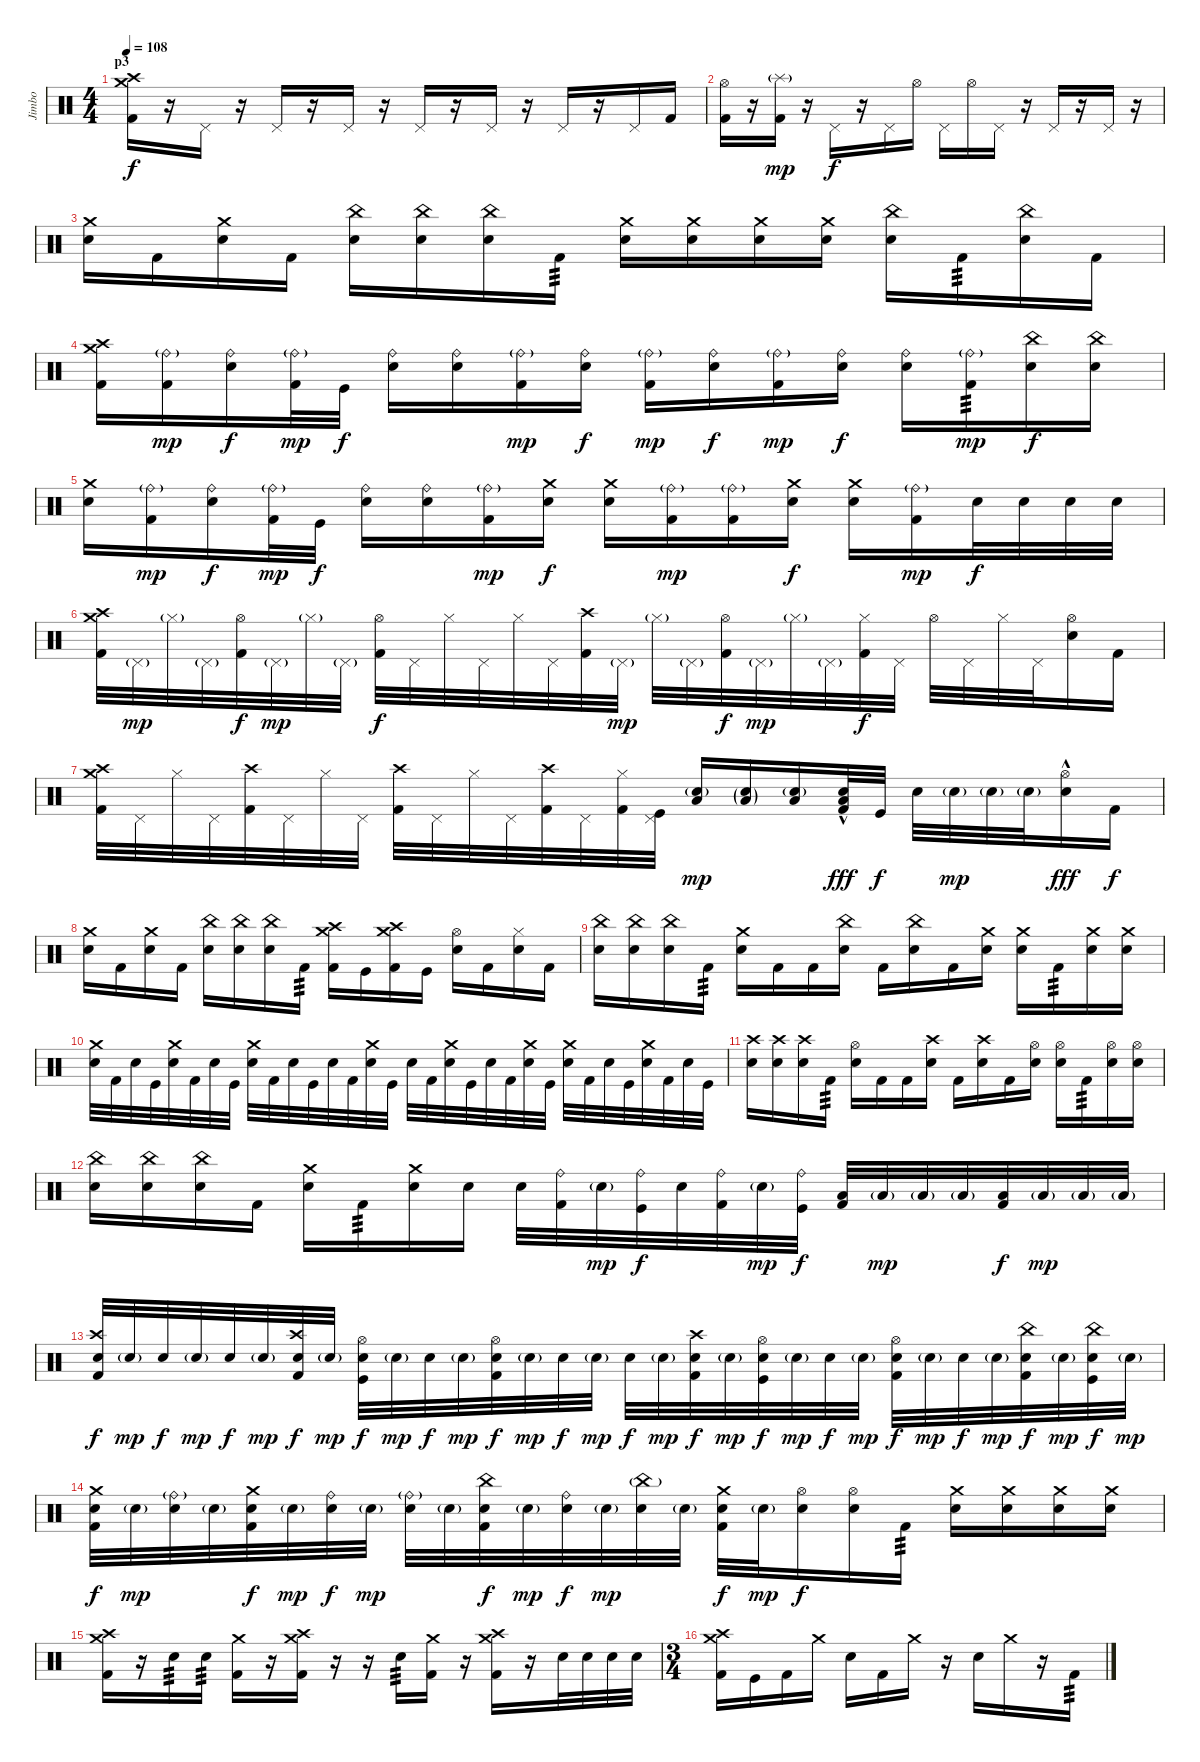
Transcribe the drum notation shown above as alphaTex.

\track ("Jimbo" "Jimbo") {instrument percussion}
\staff
\articulation defaults
\ts (4 4)
\section ("" "p3")
\tempo 108
\clef neutral
\ks c
("Kick (hit) 2" "Crash medium (hit)" "Crash high (hit)").16{dy f} r.16 "Pedal Hi-Hat (hit)".16 r.16 "Pedal Hi-Hat (hit)".16 r.16 "Pedal Hi-Hat (hit)".16 r.16 "Pedal Hi-Hat (hit)".16 r.16 "Pedal Hi-Hat (hit)".16 r.16 "Pedal Hi-Hat (hit)".16 r.16 "Pedal Hi-Hat (hit)".16 "Kick (hit) 2".16 |
("Kick (hit) 2" "Hi-Hat (open)").16 r.16 ("Kick (hit) 2" "Splash (hit)"{g}).16{dy mp} r.16 "Pedal Hi-Hat (hit)".16{dy f} r.16 "Pedal Hi-Hat (hit)".16 "Hi-Hat (open)".16 "Pedal Hi-Hat (hit)".16 "Hi-Hat (open)".16 "Pedal Hi-Hat (hit)".16 r.16 "Pedal Hi-Hat (hit)".16 r.16 "Pedal Hi-Hat (hit)".16 r.16 |
("Electric Snare (hit)" "Crash medium (hit)").16 "Kick (hit) 2".16 ("Electric Snare (hit)" "Crash medium (hit)").16 "Kick (hit) 2".16 ("Electric Snare (hit)" "China (hit)").16 ("Electric Snare (hit)" "China (hit)").16 ("Electric Snare (hit)" "China (hit)").16 "Kick (hit) 2".16{tp 3} ("Electric Snare (hit)" "Crash medium (hit)").16 ("Electric Snare (hit)" "Crash medium (hit)").16 ("Electric Snare (hit)" "Crash medium (hit)").16 ("Electric Snare (hit)" "Crash medium (hit)").16 ("Electric Snare (hit)" "China (hit)").16 "Kick (hit) 2".16{tp 3} ("Electric Snare (hit)" "China (hit)").16 "Kick (hit) 2".16 |
("Kick (hit) 2" "Crash high (hit)" "Crash medium (hit)").16 ("Kick (hit) 2" "Ride (bell)"{g}).16{dy mp} ("Electric Snare (hit)" "Ride (bell)").16{dy f} ("Kick (hit) 2" "Ride (bell)"{g}).32{dy mp} "Kick (hit)".32{dy f} ("Electric Snare (hit)" "Ride (bell)").16 ("Electric Snare (hit)" "Ride (bell)").16 ("Kick (hit) 2" "Ride (bell)"{g}).16{dy mp} ("Electric Snare (hit)" "Ride (bell)").16{dy f} ("Kick (hit) 2" "Ride (bell)"{g}).16{dy mp} ("Electric Snare (hit)" "Ride (bell)").16{dy f} ("Kick (hit) 2" "Ride (bell)"{g}).16{dy mp} ("Electric Snare (hit)" "Ride (bell)").16{dy f} ("Electric Snare (hit)" "Ride (bell)").16 ("Kick (hit) 2" "Ride (bell)"{g}).16{tp 3 dy mp} ("Electric Snare (hit)" "China (hit)").16{dy f} ("Electric Snare (hit)" "China (hit)").16 |
("Electric Snare (hit)" "Crash medium (hit)").16 ("Kick (hit) 2" "Ride (bell)"{g}).16{dy mp} ("Electric Snare (hit)" "Ride (bell)").16{dy f} ("Kick (hit) 2" "Ride (bell)"{g}).32{dy mp} "Kick (hit)".32{dy f} ("Electric Snare (hit)" "Ride (bell)").16 ("Electric Snare (hit)" "Ride (bell)").16 ("Kick (hit) 2" "Ride (bell)"{g}).16{dy mp} ("Electric Snare (hit)" "Crash medium (hit)").16{dy f} ("Electric Snare (hit)" "Crash medium (hit)").16 ("Kick (hit) 2" "Ride (bell)"{g}).16{dy mp} ("Kick (hit) 2" "Ride (bell)"{g}).16 ("Electric Snare (hit)" "Crash medium (hit)").16{dy f} ("Electric Snare (hit)" "Crash medium (hit)").16 ("Kick (hit) 2" "Ride (bell)"{g}).16{dy mp} "Electric Snare (hit)".32{dy f} "Electric Snare (hit)".32 "Electric Snare (hit)".32 "Electric Snare (hit)".32 |
("Kick (hit) 2" "Crash medium (hit)" "Crash high (hit)").32 "Pedal Hi-Hat (hit)"{g}.32{dy mp} "Hi-Hat (closed)"{g}.32 "Pedal Hi-Hat (hit)"{g}.32 ("Kick (hit) 2" "Hi-Hat (open)").32{dy f} "Pedal Hi-Hat (hit)"{g}.32{dy mp} "Hi-Hat (closed)"{g}.32 "Pedal Hi-Hat (hit)"{g}.32 ("Kick (hit) 2" "Hi-Hat (open)").32{dy f} "Pedal Hi-Hat (hit)".32 "Hi-Hat (closed)".32 "Pedal Hi-Hat (hit)".32 "Hi-Hat (closed)".32 "Pedal Hi-Hat (hit)".32 ("Kick (hit) 2" "Crash high (hit)").32 "Pedal Hi-Hat (hit)"{g}.32{dy mp} "Hi-Hat (closed)"{g}.32 "Pedal Hi-Hat (hit)"{g}.32 ("Kick (hit) 2" "Hi-Hat (open)").32{dy f} "Pedal Hi-Hat (hit)"{g}.32{dy mp} "Hi-Hat (closed)"{g}.32 "Pedal Hi-Hat (hit)"{g}.32 ("Kick (hit) 2" "Hi-Hat (closed)").32{dy f} "Pedal Hi-Hat (hit)".32 "Hi-Hat (open)".32 "Pedal Hi-Hat (hit)".32 "Hi-Hat (closed)".32 "Pedal Hi-Hat (hit)".32 ("Electric Snare (hit)" "Hi-Hat (open)").16 "Kick (hit) 2".16 |
("Kick (hit) 2" "Crash medium (hit)" "Crash high (hit)").32 "Pedal Hi-Hat (hit)".32 "Hi-Hat (closed)".32 "Pedal Hi-Hat (hit)".32 ("Kick (hit) 2" "Crash high (hit)").32 "Pedal Hi-Hat (hit)".32 "Hi-Hat (closed)".32 "Pedal Hi-Hat (hit)".32 ("Kick (hit) 2" "Crash high (hit)").32 "Pedal Hi-Hat (hit)".32 "Hi-Hat (closed)".32 "Pedal Hi-Hat (hit)".32 ("Kick (hit) 2" "Crash high (hit)").32 "Pedal Hi-Hat (hit)".32 ("Kick (hit) 2" "Hi-Hat (closed)").32 ("Kick (hit)" "Pedal Hi-Hat (hit)").32 ("Electric Snare (hit)"{g} "Low Floor Tom (hit)").16{dy mp} ("Electric Snare (hit)"{g} "Low Floor Tom (hit)"{g}).16 ("Electric Snare (hit)"{g} "Low Floor Tom (hit)").16 ("Kick (hit) 2" "Electric Snare (hit)"{hac} "Low Floor Tom (hit)").32{dy fff} "Kick (hit)".32{dy f} "Electric Snare (hit)".32 "Electric Snare (hit)"{g}.32{dy mp} "Electric Snare (hit)"{g}.32 "Electric Snare (hit)"{g}.32 ("Electric Snare (hit)"{hac} "Hi-Hat (open)").16{dy fff} "Kick (hit) 2".16{dy f} |
("Electric Snare (hit)" "Crash medium (hit)").16 "Kick (hit) 2".16 ("Electric Snare (hit)" "Crash medium (hit)").16 "Kick (hit) 2".16 ("Electric Snare (hit)" "China (hit)").16 ("Electric Snare (hit)" "China (hit)").16 ("Electric Snare (hit)" "China (hit)").16 "Kick (hit) 2".16{tp 3} ("Kick (hit) 2" "Crash medium (hit)" "Crash high (hit)").16 "Kick (hit)".16 ("Kick (hit) 2" "Crash medium (hit)" "Crash high (hit)").16 "Kick (hit)".16 ("Electric Snare (hit)" "Hi-Hat (open)").16 "Kick (hit) 2".16 ("Electric Snare (hit)" "Hi-Hat (closed)").16 "Kick (hit) 2".16 |
("Electric Snare (hit)" "China (hit)").16 ("Electric Snare (hit)" "China (hit)").16 ("Electric Snare (hit)" "China (hit)").16 "Kick (hit) 2".16{tp 3} ("Electric Snare (hit)" "Crash medium (hit)").16 "Kick (hit) 2".16 "Kick (hit) 2".16 ("Electric Snare (hit)" "China (hit)").16 "Kick (hit) 2".16 ("Electric Snare (hit)" "China (hit)").16 "Kick (hit) 2".16 ("Electric Snare (hit)" "Crash medium (hit)").16 ("Electric Snare (hit)" "Crash medium (hit)").16 "Kick (hit) 2".16{tp 3} ("Electric Snare (hit)" "Crash medium (hit)").16 ("Electric Snare (hit)" "Crash medium (hit)").16 |
("Electric Snare (hit)" "Crash medium (hit)").32 "Kick (hit) 2".32 "Electric Snare (hit)".32 "Kick (hit)".32 ("Electric Snare (hit)" "Crash medium (hit)").32 "Kick (hit) 2".32 "Electric Snare (hit)".32 "Kick (hit)".32 ("Electric Snare (hit)" "Crash medium (hit)").32 "Kick (hit) 2".32 "Electric Snare (hit)".32 "Kick (hit)".32 "Electric Snare (hit)".32 "Kick (hit) 2".32 ("Electric Snare (hit)" "Crash medium (hit)").32 "Kick (hit)".32 "Electric Snare (hit)".32 "Kick (hit) 2".32 ("Electric Snare (hit)" "Crash medium (hit)").32 "Kick (hit)".32 "Electric Snare (hit)".32 "Kick (hit) 2".32 ("Electric Snare (hit)" "Crash medium (hit)").32 "Kick (hit)".32 ("Electric Snare (hit)" "Crash medium (hit)").32 "Kick (hit) 2".32 "Electric Snare (hit)".32 "Kick (hit)".32 ("Electric Snare (hit)" "Crash medium (hit)").32 "Kick (hit) 2".32 "Electric Snare (hit)".32 "Kick (hit)".32 |
("Electric Snare (hit)" "Crash high (hit)").16 ("Electric Snare (hit)" "Crash high (hit)").16 ("Electric Snare (hit)" "Crash high (hit)").16 "Kick (hit) 2".16{tp 3} ("Electric Snare (hit)" "Hi-Hat (open)").16 "Kick (hit) 2".16 "Kick (hit) 2".16 ("Electric Snare (hit)" "Crash high (hit)").16 "Kick (hit) 2".16 ("Electric Snare (hit)" "Crash high (hit)").16 "Kick (hit) 2".16 ("Electric Snare (hit)" "Hi-Hat (open)").16 ("Electric Snare (hit)" "Hi-Hat (open)").16 "Kick (hit) 2".16{tp 3} ("Electric Snare (hit)" "Hi-Hat (open)").16 ("Electric Snare (hit)" "Hi-Hat (open)").16 |
("Electric Snare (hit)" "China (hit)").16 ("Electric Snare (hit)" "China (hit)").16 ("Electric Snare (hit)" "China (hit)").16 "Kick (hit) 2".16 ("Electric Snare (hit)" "Crash medium (hit)").16 "Kick (hit) 2".16{tp 3} ("Electric Snare (hit)" "Crash medium (hit)").16 "Electric Snare (hit)".16 "Electric Snare (hit)".32 ("Kick (hit) 2" "Ride (bell)").32 "Electric Snare (hit)"{g}.32{dy mp} ("Kick (hit)" "Ride (bell)").32{dy f} "Electric Snare (hit)".32 ("Kick (hit) 2" "Ride (bell)").32 "Electric Snare (hit)"{g}.32{dy mp} ("Kick (hit)" "Ride (bell)").32{dy f} ("Low Tom (hit)" "Kick (hit) 2").32 "Low Tom (hit)"{g}.32{dy mp} "Low Tom (hit)"{g}.32 "Low Tom (hit)"{g}.32 ("Low Floor Tom (hit)" "Kick (hit) 2").32{dy f} "Low Floor Tom (hit)"{g}.32{dy mp} "Low Floor Tom (hit)"{g}.32 "Low Floor Tom (hit)"{g}.32 |
("Electric Snare (hit)" "Crash high (hit)" "Kick (hit) 2").32{dy f} "Electric Snare (hit)"{g}.32{dy mp} "Electric Snare (hit)".32{dy f} "Electric Snare (hit)"{g}.32{dy mp} "Electric Snare (hit)".32{dy f} "Electric Snare (hit)"{g}.32{dy mp} ("Electric Snare (hit)" "Crash high (hit)" "Kick (hit) 2").32{dy f} "Electric Snare (hit)"{g}.32{dy mp} ("Electric Snare (hit)" "Hi-Hat (open)" "Kick (hit)").32{dy f} "Electric Snare (hit)"{g}.32{dy mp} "Electric Snare (hit)".32{dy f} "Electric Snare (hit)"{g}.32{dy mp} ("Electric Snare (hit)" "Hi-Hat (open)" "Kick (hit) 2").32{dy f} "Electric Snare (hit)"{g}.32{dy mp} "Electric Snare (hit)".32{dy f} "Electric Snare (hit)"{g}.32{dy mp} "Electric Snare (hit)".32{dy f} "Electric Snare (hit)"{g}.32{dy mp} ("Electric Snare (hit)" "Crash high (hit)" "Kick (hit) 2").32{dy f} "Electric Snare (hit)"{g}.32{dy mp} ("Electric Snare (hit)" "Hi-Hat (open)" "Kick (hit)").32{dy f} "Electric Snare (hit)"{g}.32{dy mp} "Electric Snare (hit)".32{dy f} "Electric Snare (hit)"{g}.32{dy mp} ("Electric Snare (hit)" "Hi-Hat (open)" "Kick (hit) 2").32{dy f} "Electric Snare (hit)"{g}.32{dy mp} "Electric Snare (hit)".32{dy f} "Electric Snare (hit)"{g}.32{dy mp} ("Electric Snare (hit)" "China (hit)" "Kick (hit) 2").32{dy f} "Electric Snare (hit)"{g}.32{dy mp} ("Electric Snare (hit)" "China (hit)" "Kick (hit)").32{dy f} "Electric Snare (hit)"{g}.32{dy mp} |
("Electric Snare (hit)" "Crash medium (hit)" "Kick (hit) 2").32{dy f} "Electric Snare (hit)"{g}.32{dy mp} ("Electric Snare (hit)" "Ride (bell)"{g}).32 "Electric Snare (hit)"{g}.32 ("Electric Snare (hit)" "Crash medium (hit)" "Kick (hit) 2").32{dy f} "Electric Snare (hit)"{g}.32{dy mp} ("Electric Snare (hit)" "Ride (bell)").32{dy f} "Electric Snare (hit)"{g}.32{dy mp} ("Electric Snare (hit)" "Ride (bell)"{g}).32 "Electric Snare (hit)"{g}.32 ("Electric Snare (hit)" "China (hit)" "Kick (hit) 2").32{dy f} "Electric Snare (hit)"{g}.32{dy mp} ("Electric Snare (hit)" "Ride (bell)").32{dy f} "Electric Snare (hit)"{g}.32{dy mp} ("Electric Snare (hit)" "China (hit)"{g}).32 "Electric Snare (hit)"{g}.32 ("Electric Snare (hit)" "Kick (hit) 2" "Crash medium (hit)").32{dy f} "Electric Snare (hit)"{g}.32{dy mp} ("Electric Snare (hit)" "Hi-Hat (open)").16{dy f} ("Electric Snare (hit)" "Hi-Hat (open)").16 "Kick (hit) 2".16{tp 3} ("Electric Snare (hit)" "Crash medium (hit)").16 ("Electric Snare (hit)" "Crash medium (hit)").16 ("Electric Snare (hit)" "Crash medium (hit)").16 ("Electric Snare (hit)" "Crash medium (hit)").16 |
("Kick (hit) 2" "Crash medium (hit)" "Crash high (hit)").16 r.16 "Electric Snare (hit)".16{tp 3} "Electric Snare (hit)".16{tp 3} ("Kick (hit) 2" "Crash medium (hit)").16 r.16 ("Kick (hit) 2" "Crash medium (hit)" "Crash high (hit)").16 r.16 r.16 "Electric Snare (hit)".16{tp 3} ("Kick (hit) 2" "Crash medium (hit)").16 r.16 ("Kick (hit) 2" "Crash medium (hit)" "Crash high (hit)").16 r.16 "Electric Snare (hit)".32 "Electric Snare (hit)".32 "Electric Snare (hit)".32 "Electric Snare (hit)".32 |
\ts (3 4)
("Kick (hit) 2" "Crash medium (hit)" "Crash high (hit)").16 "Kick (hit)".16 "Kick (hit) 2".16 "Crash medium (hit)".16 "Electric Snare (hit)".16 "Kick (hit) 2".16 "Crash medium (hit)".16 r.16 "Electric Snare (hit)".16 "Crash medium (hit)".16 r.16 "Kick (hit) 2".16{tp 3}
